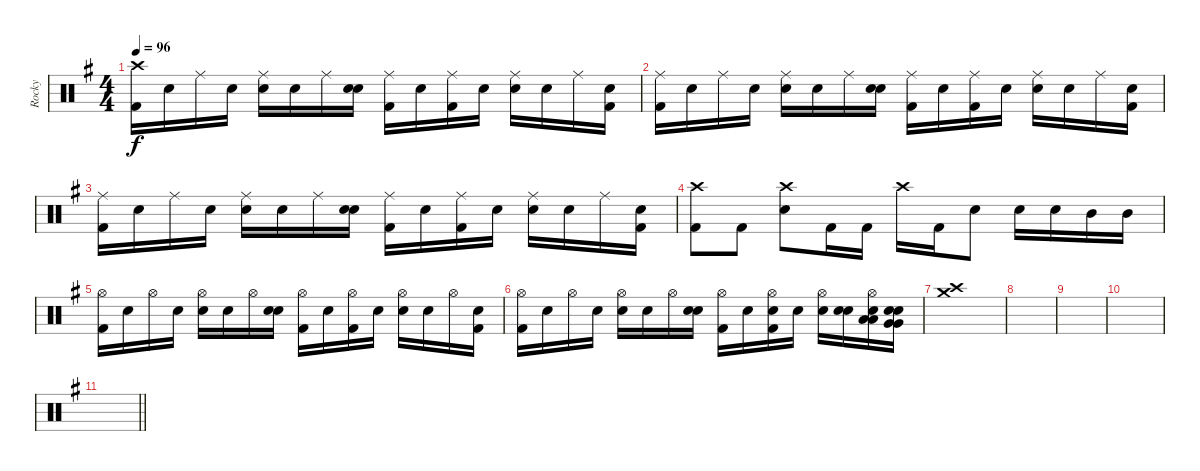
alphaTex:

\track ("Rocky" "Rocky") {instrument percussion}
\staff {score}
\articulation defaults
\ts (4 4)
\tempo 96
\clef neutral
\ks g
("Crash high (hit)" "Kick (hit) 2").16{dy f} "Snare (hit)".16 "Ride (middle)".16 "Snare (hit)".16 ("Ride (middle)" "Snare (hit) 2").16 "Snare (hit)".16 "Ride (middle)".16 ("Snare (hit)" "Snare (hit) 2").16 ("Ride (middle)" "Kick (hit) 2").16 "Snare (hit)".16 ("Ride (middle)" "Kick (hit) 2").16 "Snare (hit)".16 ("Ride (middle)" "Snare (hit) 2").16 "Snare (hit)".16 "Ride (middle)".16 ("Snare (hit)" "Kick (hit) 2").16 |
("Ride (middle)" "Kick (hit) 2").16 "Snare (hit)".16 "Ride (middle)".16 "Snare (hit)".16 ("Ride (middle)" "Snare (hit) 2").16 "Snare (hit)".16 "Ride (middle)".16 ("Snare (hit)" "Snare (hit) 2").16 ("Ride (middle)" "Kick (hit) 2").16 "Snare (hit)".16 ("Ride (middle)" "Kick (hit) 2").16 "Snare (hit)".16 ("Ride (middle)" "Snare (hit) 2").16 "Snare (hit)".16 "Ride (middle)".16 ("Snare (hit)" "Kick (hit) 2").16 |
("Ride (middle)" "Kick (hit) 2").16 "Snare (hit)".16 "Ride (middle)".16 "Snare (hit)".16 ("Ride (middle)" "Snare (hit) 2").16 "Snare (hit)".16 "Ride (middle)".16 ("Snare (hit)" "Snare (hit) 2").16 ("Ride (middle)" "Kick (hit) 2").16 "Snare (hit)".16 ("Ride (middle)" "Kick (hit) 2").16 "Snare (hit)".16 ("Ride (middle)" "Snare (hit) 2").16 "Snare (hit)".16 "Ride (middle)".16 ("Snare (hit)" "Kick (hit) 2").16 |
("Crash high (hit)" "Kick (hit) 2").8 "Kick (hit) 2".8 ("Crash high (hit)" "Snare (hit) 2").8 "Kick (hit) 2".16 "Kick (hit) 2".16 "Crash high (hit)".16 "Kick (hit) 2".16 "Snare (hit) 2".8 "Snare (hit) 2".16 "Snare (hit) 2".16 "Mid Tom (hit)".16 "Mid Tom (hit)".16 |
("Hi-Hat (open)" "Kick (hit) 2").16 "Snare (hit)".16 "Hi-Hat (open)".16 "Snare (hit)".16 ("Hi-Hat (open)" "Snare (hit) 2").16 "Snare (hit)".16 "Hi-Hat (open)".16 ("Snare (hit)" "Snare (hit) 2").16 ("Hi-Hat (open)" "Kick (hit) 2").16 "Snare (hit)".16 ("Hi-Hat (open)" "Kick (hit) 2").16 "Snare (hit)".16 ("Hi-Hat (open)" "Snare (hit) 2").16 "Snare (hit)".16 "Hi-Hat (open)".16 ("Snare (hit)" "Kick (hit) 2").16 |
("Hi-Hat (open)" "Kick (hit) 2").16 "Snare (hit)".16 "Hi-Hat (open)".16 "Snare (hit)".16 ("Hi-Hat (open)" "Snare (hit) 2").16 "Snare (hit)".16 "Hi-Hat (open)".16 ("Snare (hit)" "Snare (hit) 2").16 ("Hi-Hat (open)" "Kick (hit) 2").16 "Snare (hit)".16 ("Hi-Hat (open)" "Snare (hit) 2" "Kick (hit) 2").16 "Snare (hit)".16 ("Hi-Hat (open)" "Snare (hit) 2").16 ("Snare (hit)" "Snare (hit) 2").16 ("Hi-Hat (open)" "Low Tom (hit)" "Low Tom (hit)" "Snare (hit) 2").16 ("Snare (hit)" "Very Low Tom (hit)" "Very Low Tom (hit)" "Snare (hit) 2").16 |
("Crash high (hit)" "Crash medium (hit)").1 |
|
|
|
\barLineRight lightlight
